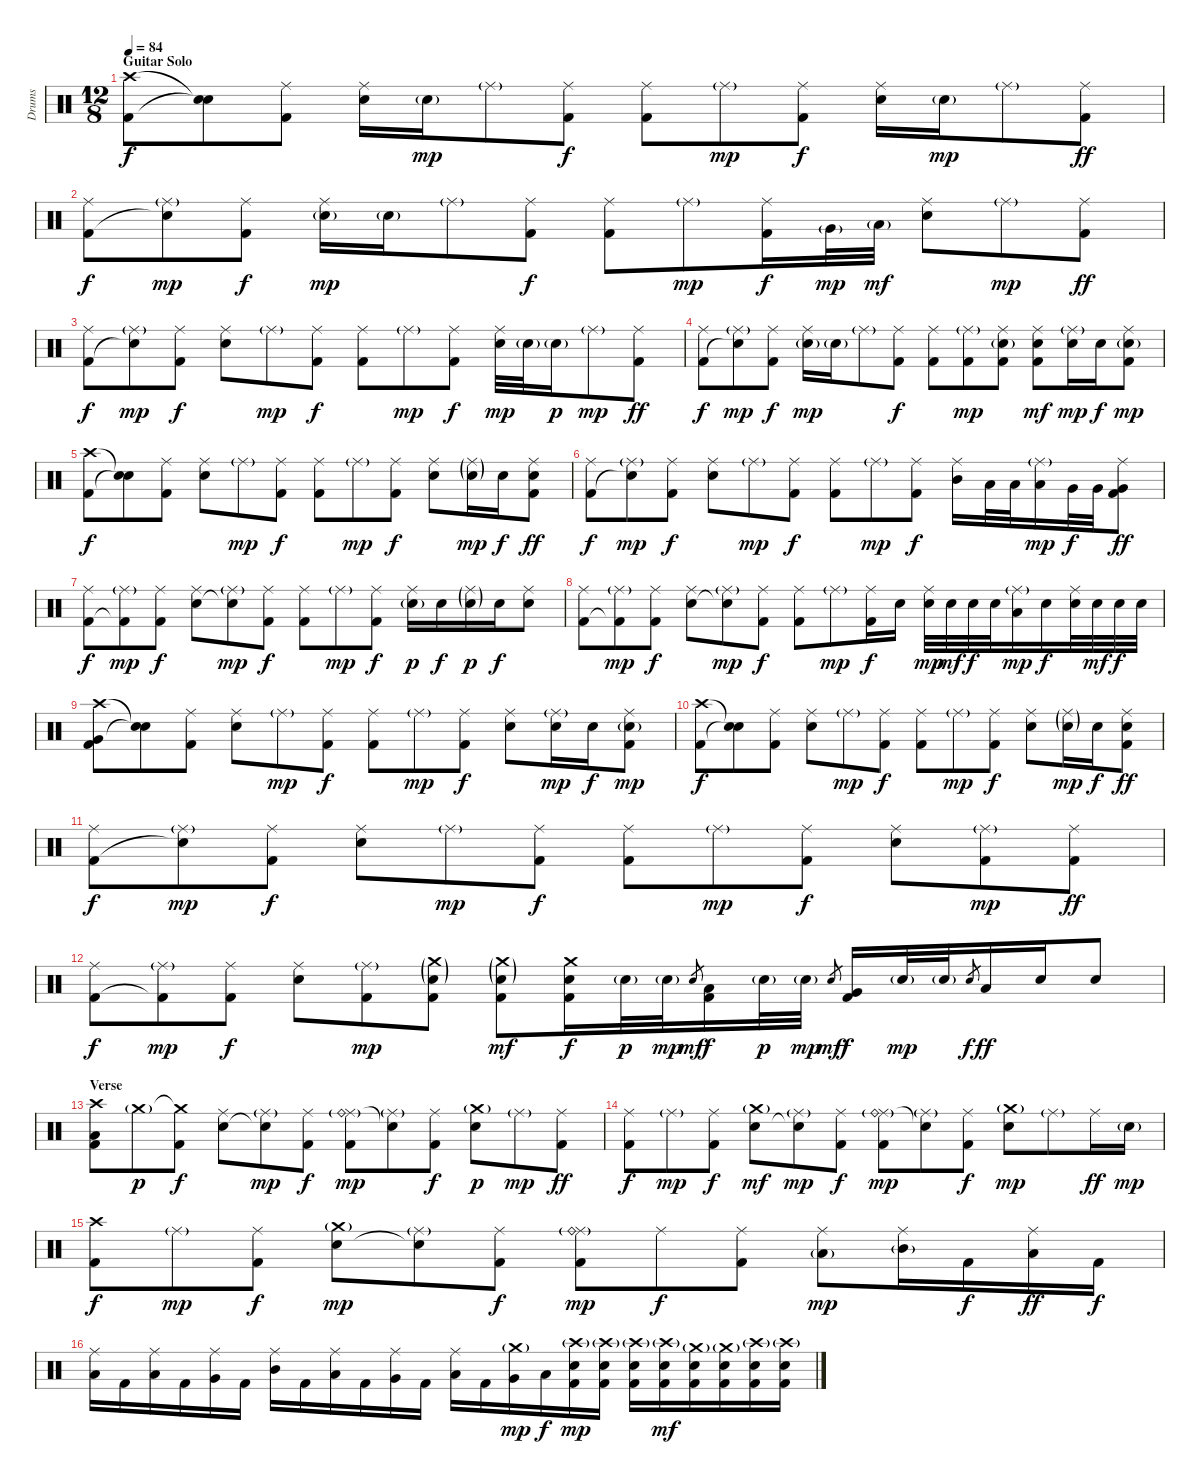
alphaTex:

\track ("Drums" "Drums") {instrument percussion}
\staff {score}
\articulation defaults
\ts (12 8)
\section ("" "Guitar Solo")
\tempo 84
\clef neutral
\ks c
("Crash high (hit)" "Kick (hit) 2").8{dy f} ("Snare (hit)"{t} "Snare (hit)"{t}).8 ("Ride (middle)" "Kick (hit) 2").8 ("Ride (middle)" "Electric Snare (hit)").16 "Electric Snare (hit)"{g}.16{dy mp} "Ride (middle)"{g}.8 ("Ride (middle)" "Kick (hit) 2").8{dy f} ("Ride (middle)" "Kick (hit) 2").8 "Ride (middle)"{g}.8{dy mp} ("Ride (middle)" "Kick (hit) 2").8{dy f} ("Ride (middle)" "Electric Snare (hit)").16 "Electric Snare (hit)"{g}.16{dy mp} "Ride (middle)"{g}.8 ("Ride (middle)" "Kick (hit) 2").8{dy ff} |
("Ride (middle)" "Kick (hit) 2").8{dy f} ("Ride (middle)"{g} "Snare (hit)"{t}).8{dy mp} ("Ride (middle)" "Kick (hit) 2").8{dy f} ("Ride (middle)" "Electric Snare (hit)"{g}).16{dy mp} "Electric Snare (hit)"{g}.16 "Ride (middle)"{g}.8 ("Ride (middle)" "Kick (hit) 2").8{dy f} ("Ride (middle)" "Kick (hit) 2").8 "Ride (middle)"{g}.8{dy mp} ("Ride (middle)" "Kick (hit) 2").16{dy f} "Very Low Tom (hit)"{g}.32{dy mp} "Low Tom (hit)"{g}.32{dy mf} ("Ride (middle)" "Electric Snare (hit)").8 "Ride (middle)"{g}.8{dy mp} ("Ride (middle)" "Kick (hit) 2").8{dy ff} |
("Ride (middle)" "Kick (hit) 2").8{dy f} ("Ride (middle)"{g} "Snare (hit)"{t}).8{dy mp} ("Ride (middle)" "Kick (hit) 2").8{dy f} ("Ride (middle)" "Electric Snare (hit)").8 "Ride (middle)"{g}.8{dy mp} ("Ride (middle)" "Kick (hit) 2").8{dy f} ("Ride (middle)" "Kick (hit) 2").8 "Ride (middle)"{g}.8{dy mp} ("Ride (middle)" "Kick (hit) 2").8{dy f} ("Ride (middle)" "Electric Snare (hit)").32{dy mp} "Electric Snare (hit)"{g}.32 "Electric Snare (hit)"{g}.16{dy p} "Ride (middle)"{g}.8{dy mp} ("Ride (middle)" "Kick (hit) 2").8{dy ff} |
("Ride (middle)" "Kick (hit) 2").8{dy f} ("Ride (middle)"{g} "Snare (hit)"{t}).8{dy mp} ("Ride (middle)" "Kick (hit) 2").8{dy f} ("Ride (middle)" "Electric Snare (hit)"{g}).16{dy mp} "Electric Snare (hit)"{g}.16 "Ride (middle)"{g}.8 ("Ride (middle)" "Kick (hit) 2").8{dy f} ("Ride (middle)" "Kick (hit) 2").8 ("Ride (middle)"{g} "Kick (hit) 2").8{dy mp} ("Ride (middle)" "Electric Snare (hit)"{g} "Kick (hit) 2").8 ("Ride (middle)" "Electric Snare (hit)" "Kick (hit) 2").8{dy mf} ("Ride (middle)"{g} "Electric Snare (hit)").16{dy mp} "Electric Snare (hit)".16{dy f} ("Ride (middle)" "Electric Snare (hit)"{g} "Kick (hit) 2").8{dy mp} |
("Crash high (hit)" "Kick (hit) 2").8{dy f} ("Snare (hit)"{t} "Snare (hit)"{t}).8 ("Ride (middle)" "Kick (hit) 2").8 ("Ride (middle)" "Electric Snare (hit)").8 "Ride (middle)"{g}.8{dy mp} ("Ride (middle)" "Kick (hit) 2").8{dy f} ("Ride (middle)" "Kick (hit) 2").8 "Ride (middle)"{g}.8{dy mp} ("Ride (middle)" "Kick (hit) 2").8{dy f} ("Ride (middle)" "Electric Snare (hit)").8 ("Ride (middle)"{g} "Electric Snare (hit)"{g}).16{dy mp} "Electric Snare (hit)".16{dy f} ("Ride (middle)" "Electric Snare (hit)" "Kick (hit) 2").8{dy ff} |
("Ride (middle)" "Kick (hit) 2").8{dy f} ("Ride (middle)"{g} "Snare (hit)"{t}).8{dy mp} ("Ride (middle)" "Kick (hit) 2").8{dy f} ("Ride (middle)" "Electric Snare (hit)").8 "Ride (middle)"{g}.8{dy mp} ("Ride (middle)" "Kick (hit) 2").8{dy f} ("Ride (middle)" "Kick (hit) 2").8 "Ride (middle)"{g}.8{dy mp} ("Ride (middle)" "Kick (hit) 2").8{dy f} ("Ride (middle)" "Mid Tom (hit)").16 "Low Tom (hit)".32 "Low Tom (hit)".32 ("Ride (middle)"{g} "Low Tom (hit)").16{dy mp} "Very Low Tom (hit)".32{dy f} "Very Low Tom (hit)".32 ("Ride (middle)" "Very Low Tom (hit)" "Kick (hit) 2").8{dy ff} |
("Ride (middle)" "Kick (hit) 2").8{dy f} ("Ride (middle)"{g} "Kick (hit) 2"{t}).8{dy mp} ("Ride (middle)" "Kick (hit) 2").8{dy f} ("Ride (middle)" "Electric Snare (hit)").8 ("Ride (middle)"{g} "Snare (hit)"{t}).8{dy mp} ("Ride (middle)" "Kick (hit) 2").8{dy f} ("Ride (middle)" "Kick (hit) 2").8 "Ride (middle)"{g}.8{dy mp} ("Ride (middle)" "Kick (hit) 2").8{dy f} ("Ride (middle)" "Electric Snare (hit)"{g}).16{dy p} "Electric Snare (hit)".16{dy f} ("Ride (middle)"{g} "Electric Snare (hit)"{g}).16{dy p} "Electric Snare (hit)".16{dy f} ("Ride (middle)" "Electric Snare (hit)").8 |
("Ride (middle)" "Kick (hit) 2").8 ("Ride (middle)"{g} "Kick (hit) 2"{t}).8{dy mp} ("Ride (middle)" "Kick (hit) 2").8{dy f} ("Ride (middle)" "Electric Snare (hit)").8 ("Ride (middle)"{g} "Snare (hit)"{t}).8{dy mp} ("Ride (middle)" "Kick (hit) 2").8{dy f} ("Ride (middle)" "Kick (hit) 2").8 "Ride (middle)"{g}.8{dy mp} ("Ride (middle)" "Kick (hit) 2").16{dy f} "Electric Snare (hit)".16 ("Ride (middle)" "Electric Snare (hit)").32{dy mp} "Electric Snare (hit)".32{dy mf} "Electric Snare (hit)".32{dy f} "Electric Snare (hit)".32 ("Ride (middle)"{g} "Low Tom (hit)").16{dy mp} "Electric Snare (hit)".16{dy f} ("Ride (middle)" "Electric Snare (hit)").32 "Electric Snare (hit)".32{dy mf} "Electric Snare (hit)".32{dy f} "Electric Snare (hit)".32 |
("Crash high (hit)" "Very Low Tom (hit)" "Kick (hit) 2").8 ("Snare (hit)"{t} "Snare (hit)"{t}).8 ("Ride (middle)" "Kick (hit) 2").8 ("Ride (middle)" "Electric Snare (hit)").8 "Ride (middle)"{g}.8{dy mp} ("Ride (middle)" "Kick (hit) 2").8{dy f} ("Ride (middle)" "Kick (hit) 2").8 "Ride (middle)"{g}.8{dy mp} ("Ride (middle)" "Kick (hit) 2").8{dy f} ("Ride (middle)" "Electric Snare (hit)").8 ("Ride (middle)"{g} "Electric Snare (hit)").16{dy mp} "Electric Snare (hit)".16{dy f} ("Ride (middle)" "Electric Snare (hit)"{g} "Kick (hit) 2").8{dy mp} |
("Crash high (hit)" "Kick (hit) 2").8{dy f} ("Snare (hit)"{t} "Snare (hit)"{t}).8 ("Ride (middle)" "Kick (hit) 2").8 ("Ride (middle)" "Electric Snare (hit)").8 "Ride (middle)"{g}.8{dy mp} ("Ride (middle)" "Kick (hit) 2").8{dy f} ("Ride (middle)" "Kick (hit) 2").8 "Ride (middle)"{g}.8{dy mp} ("Ride (middle)" "Kick (hit) 2").8{dy f} ("Ride (middle)" "Electric Snare (hit)").8 ("Ride (middle)"{g} "Electric Snare (hit)"{g}).16{dy mp} "Electric Snare (hit)".16{dy f} ("Ride (middle)" "Electric Snare (hit)" "Kick (hit) 2").8{dy ff} |
("Ride (middle)" "Kick (hit) 2").8{dy f} ("Ride (middle)"{g} "Snare (hit)"{t}).8{dy mp} ("Ride (middle)" "Kick (hit) 2").8{dy f} ("Ride (middle)" "Electric Snare (hit)").8 "Ride (middle)"{g}.8{dy mp} ("Ride (middle)" "Kick (hit) 2").8{dy f} ("Ride (middle)" "Kick (hit) 2").8 "Ride (middle)"{g}.8{dy mp} ("Ride (middle)" "Kick (hit) 2").8{dy f} ("Ride (middle)" "Electric Snare (hit)").8 ("Ride (middle)"{g} "Kick (hit) 2").8{dy mp} ("Ride (middle)" "Kick (hit) 2").8{dy ff} |
("Ride (middle)" "Kick (hit) 2").8{dy f} ("Ride (middle)"{g} "Kick (hit) 2"{t}).8{dy mp} ("Ride (middle)" "Kick (hit) 2").8{dy f} ("Ride (middle)" "Electric Snare (hit)").8 ("Ride (middle)"{g} "Kick (hit) 2").8{dy mp} ("Crash medium (hit)"{g} "Electric Snare (hit)"{g} "Kick (hit) 2").8 ("Crash medium (hit)"{g} "Electric Snare (hit)"{g} "Kick (hit) 2").8{dy mf} ("Crash medium (hit)" "Electric Snare (hit)" "Kick (hit) 2").16{dy f} "Electric Snare (hit)"{g}.32{dy p} "Electric Snare (hit)"{g}.32{dy mp} "Electric Snare (hit)".8{gr dy mf} ("Low Tom (hit)" "Kick (hit) 2").16{dy f} "Electric Snare (hit)"{g}.32{dy p} "Electric Snare (hit)"{g}.32{dy mp} "Electric Snare (hit)".8{gr dy mf} ("Very Low Tom (hit)" "Kick (hit) 2").16{dy f} "Electric Snare (hit)"{g}.32{dy mp} "Electric Snare (hit)"{g}.32 "Electric Snare (hit)".8{gr dy f} "Low Tom (hit)".16{dy ff} "Electric Snare (hit)".16 "Electric Snare (hit)".8 |
\section ("" "Verse")
("Crash high (hit)" "Low Tom (hit)" "Kick (hit) 2").8 "Crash medium (hit)"{g}.8{dy p} ("Crash medium (hit)"{t} "Kick (hit) 2").8{dy f} ("Ride (middle)" "Electric Snare (hit)").8 ("Ride (middle)"{g} "Snare (hit)"{t}).8{dy mp} ("Ride (middle)" "Kick (hit) 2").8{dy f} ("Ride (middle)" "Ride (bell)"{g} "Kick (hit) 2").8{dy mp} ("Ride (middle)"{g} "Snare (hit)"{t}).8 ("Ride (middle)" "Kick (hit) 2").8{dy f} ("Crash medium (hit)"{g} "Electric Snare (hit)").8{dy p} "Ride (middle)"{g}.8{dy mp} ("Ride (middle)" "Kick (hit) 2").8{dy ff} |
("Ride (middle)" "Kick (hit) 2").8{dy f} "Ride (middle)"{g}.8{dy mp} ("Ride (middle)" "Kick (hit) 2").8{dy f} ("Crash medium (hit)"{g} "Electric Snare (hit)").8{dy mf} ("Ride (middle)"{g} "Snare (hit)"{t}).8{dy mp} ("Ride (middle)" "Kick (hit) 2").8{dy f} ("Ride (middle)" "Ride (bell)"{g} "Kick (hit) 2").8{dy mp} ("Ride (middle)"{g} "Snare (hit)"{t}).8 ("Ride (middle)" "Kick (hit) 2").8{dy f} ("Crash medium (hit)"{g} "Electric Snare (hit)").8{dy mp} "Ride (middle)"{g}.8 "Ride (middle)".16{dy ff} "Electric Snare (hit)"{g}.16{dy mp} |
("Crash high (hit)" "Kick (hit) 2").8{dy f} "Ride (middle)"{g}.8{dy mp} ("Ride (middle)" "Kick (hit) 2").8{dy f} ("Crash medium (hit)"{g} "Electric Snare (hit)").8{dy mp} ("Ride (middle)"{g} "Snare (hit)"{t}).8 ("Ride (middle)" "Kick (hit) 2").8{dy f} ("Ride (middle)" "Ride (bell)"{g} "Kick (hit) 2").8{dy mp} "Ride (middle)".8{dy f} ("Ride (middle)" "Kick (hit) 2").8 ("Ride (middle)" "Low Tom (hit)"{g}).8{dy mp} ("Ride (middle)" "Mid Tom (hit)"{g}).16 "Kick (hit) 2".16{dy f} ("Ride (middle)" "Low Tom (hit)").16{dy ff} "Kick (hit) 2".16{dy f} |
("Ride (middle)" "Low Tom (hit)").16 "Kick (hit) 2".16 ("Ride (middle)" "Low Tom (hit)").16 "Kick (hit) 2".16 ("Ride (middle)" "Very Low Tom (hit)").16 "Kick (hit) 2".16 ("Ride (middle)" "Mid Tom (hit)").16 "Kick (hit) 2".16 ("Ride (middle)" "Low Tom (hit)").16 "Kick (hit) 2".16 ("Ride (middle)" "Very Low Tom (hit)").16 "Kick (hit) 2".16 ("Ride (middle)" "Low Tom (hit)").16 "Kick (hit) 2".16 ("Crash medium (hit)"{g} "Very Low Tom (hit)").16{dy mp} "Low Tom (hit)".16{dy f} ("Crash high (hit)"{g} "Electric Snare (hit)" "Kick (hit) 2").16{dy mp} ("Crash high (hit)"{g} "Electric Snare (hit)" "Kick (hit) 2").16 ("Crash high (hit)"{g} "Electric Snare (hit)" "Kick (hit) 2").16 ("Crash high (hit)"{g} "Electric Snare (hit)" "Kick (hit) 2").16{dy mf} ("Crash medium (hit)"{g} "Electric Snare (hit)" "Kick (hit) 2").16 ("Crash medium (hit)"{g} "Electric Snare (hit)" "Kick (hit) 2").16 ("Crash high (hit)"{g} "Electric Snare (hit)" "Kick (hit) 2").16 ("Crash high (hit)"{g} "Electric Snare (hit)" "Kick (hit) 2").16
